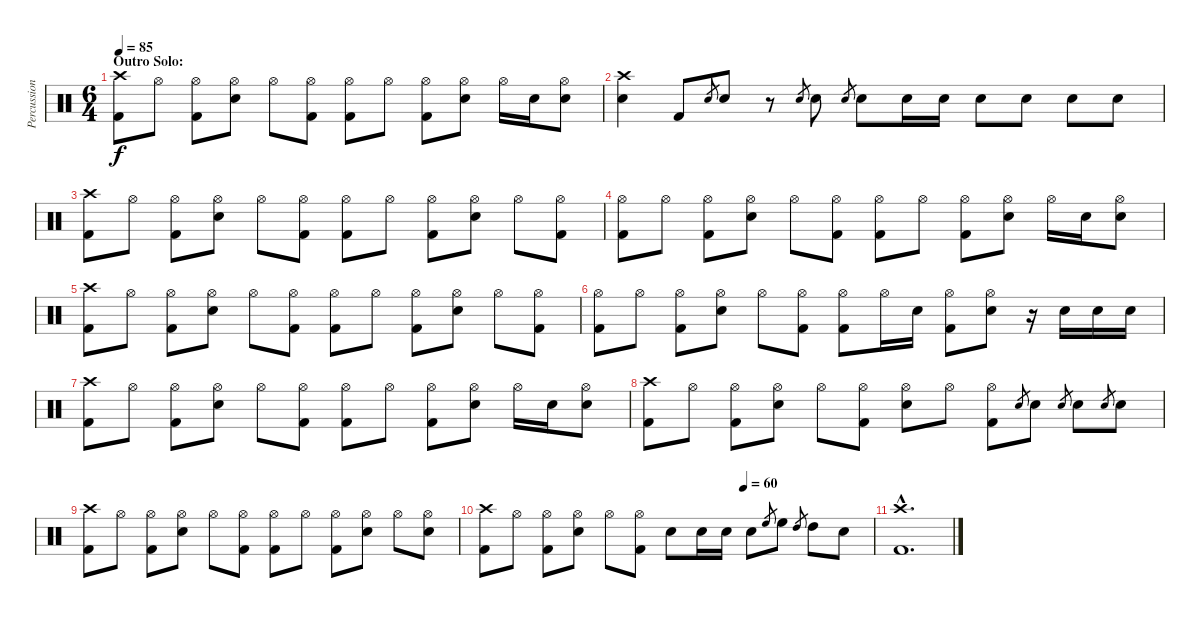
\track ("Percussion" "Percussion") {instrument percussion}
\staff {score}
\articulation defaults
\ts (6 4)
\section ("" "Outro Solo:")
\tempo 85
\clef neutral
\ks c
("Crash high (hit)" "Kick (hit) 2").8{dy f} "Hi-Hat (open)".8 ("Hi-Hat (open)" "Kick (hit) 2").8 ("Hi-Hat (open)" "Electric Snare (hit)").8 "Hi-Hat (open)".8 ("Hi-Hat (open)" "Kick (hit) 2").8 ("Hi-Hat (open)" "Kick (hit) 2").8 "Hi-Hat (open)".8 ("Hi-Hat (open)" "Kick (hit) 2").8 ("Hi-Hat (open)" "Electric Snare (hit)").8 "Hi-Hat (open)".16 "Electric Snare (hit)".16 ("Hi-Hat (open)" "Electric Snare (hit)").8 |
("Crash high (hit)" "Electric Snare (hit)").4 "Kick (hit) 2".8 "Electric Snare (hit)".8{gr} "Electric Snare (hit)".8 r.8 "Electric Snare (hit)".8{gr} "Electric Snare (hit)".8 "Electric Snare (hit)".8{gr} "Electric Snare (hit)".8 "Electric Snare (hit)".16 "Electric Snare (hit)".16 "Electric Snare (hit)".8 "Electric Snare (hit)".8 "Electric Snare (hit)".8 "Electric Snare (hit)".8 |
("Crash high (hit)" "Kick (hit) 2").8 "Hi-Hat (open)".8 ("Hi-Hat (open)" "Kick (hit) 2").8 ("Hi-Hat (open)" "Electric Snare (hit)").8 "Hi-Hat (open)".8 ("Hi-Hat (open)" "Kick (hit) 2").8 ("Hi-Hat (open)" "Kick (hit) 2").8 "Hi-Hat (open)".8 ("Hi-Hat (open)" "Kick (hit) 2").8 ("Hi-Hat (open)" "Electric Snare (hit)").8 "Hi-Hat (open)".8 ("Hi-Hat (open)" "Kick (hit) 2").8 |
("Hi-Hat (open)" "Kick (hit) 2").8 "Hi-Hat (open)".8 ("Hi-Hat (open)" "Kick (hit) 2").8 ("Hi-Hat (open)" "Electric Snare (hit)").8 "Hi-Hat (open)".8 ("Hi-Hat (open)" "Kick (hit) 2").8 ("Hi-Hat (open)" "Kick (hit) 2").8 "Hi-Hat (open)".8 ("Hi-Hat (open)" "Kick (hit) 2").8 ("Hi-Hat (open)" "Electric Snare (hit)").8 "Hi-Hat (open)".16 "Electric Snare (hit)".16 ("Hi-Hat (open)" "Electric Snare (hit)").8 |
("Crash high (hit)" "Kick (hit) 2").8 "Hi-Hat (open)".8 ("Hi-Hat (open)" "Kick (hit) 2").8 ("Hi-Hat (open)" "Electric Snare (hit)").8 "Hi-Hat (open)".8 ("Hi-Hat (open)" "Kick (hit) 2").8 ("Hi-Hat (open)" "Kick (hit) 2").8 "Hi-Hat (open)".8 ("Hi-Hat (open)" "Kick (hit) 2").8 ("Hi-Hat (open)" "Electric Snare (hit)").8 "Hi-Hat (open)".8 ("Hi-Hat (open)" "Kick (hit) 2").8 |
("Hi-Hat (open)" "Kick (hit) 2").8 "Hi-Hat (open)".8 ("Hi-Hat (open)" "Kick (hit) 2").8 ("Hi-Hat (open)" "Electric Snare (hit)").8 "Hi-Hat (open)".8 ("Hi-Hat (open)" "Kick (hit) 2").8 ("Hi-Hat (open)" "Kick (hit) 2").8 "Hi-Hat (open)".16 "Electric Snare (hit)".16 ("Hi-Hat (open)" "Kick (hit) 2").8 ("Hi-Hat (open)" "Electric Snare (hit)").8 r.16 "Electric Snare (hit)".16 "Electric Snare (hit)".16 "Electric Snare (hit)".16 |
("Crash high (hit)" "Kick (hit) 2").8 "Hi-Hat (open)".8 ("Hi-Hat (open)" "Kick (hit) 2").8 ("Hi-Hat (open)" "Electric Snare (hit)").8 "Hi-Hat (open)".8 ("Hi-Hat (open)" "Kick (hit) 2").8 ("Hi-Hat (open)" "Kick (hit) 2").8 "Hi-Hat (open)".8 ("Hi-Hat (open)" "Kick (hit) 2").8 ("Hi-Hat (open)" "Electric Snare (hit)").8 "Hi-Hat (open)".16 "Electric Snare (hit)".16 ("Hi-Hat (open)" "Electric Snare (hit)").8 |
("Crash high (hit)" "Kick (hit) 2").8 "Hi-Hat (open)".8 ("Hi-Hat (open)" "Kick (hit) 2").8 ("Hi-Hat (open)" "Electric Snare (hit)").8 "Hi-Hat (open)".8 ("Hi-Hat (open)" "Kick (hit) 2").8 ("Hi-Hat (open)" "Electric Snare (hit)").8 "Hi-Hat (open)".8 ("Hi-Hat (open)" "Kick (hit) 2").8 "Electric Snare (hit)".8{gr} "Electric Snare (hit)".8 "Electric Snare (hit)".8{gr} "Electric Snare (hit)".8 "Electric Snare (hit)".8{gr} "Electric Snare (hit)".8 |
("Crash high (hit)" "Kick (hit) 2").8 "Hi-Hat (open)".8 ("Hi-Hat (open)" "Kick (hit) 2").8 ("Hi-Hat (open)" "Electric Snare (hit)").8 "Hi-Hat (open)".8 ("Hi-Hat (open)" "Kick (hit) 2").8 ("Hi-Hat (open)" "Kick (hit) 2").8 "Hi-Hat (open)".8 ("Hi-Hat (open)" "Kick (hit) 2").8 ("Hi-Hat (open)" "Electric Snare (hit)").8 "Hi-Hat (open)".8 ("Hi-Hat (open)" "Electric Snare (hit)").8 |
\tempo (60 0.6666666666666666)
("Crash high (hit)" "Kick (hit) 2").8 "Hi-Hat (open)".8 ("Hi-Hat (open)" "Kick (hit) 2").8 ("Hi-Hat (open)" "Electric Snare (hit)").8 "Hi-Hat (open)".8 ("Hi-Hat (open)" "Kick (hit) 2").8 "Electric Snare (hit)".8 "Electric Snare (hit)".16 "Electric Snare (hit)".16 "Electric Snare (hit)".8 "High Floor Tom (hit)".8{gr} "High Floor Tom (hit)".8 "High Tom (hit)".8{gr} "High Tom (hit)".8 "Electric Snare (hit)".8 |
("Crash high (hit)"{hac} "Kick (hit) 2"{hac}).1{d}
